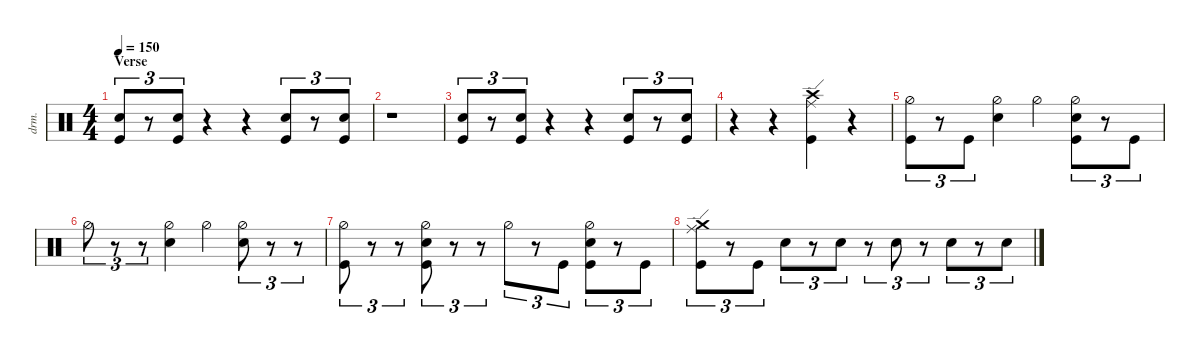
\defaultSystemsLayout 4
\hideDynamics
\bracketExtendMode nobrackets
\otherSystemsTrackNameOrientation horizontal
\track ("Drumkit" "drm.") {solo instrument percussion}
\staff {score}
\articulation defaults
\ts (4 4)
\section ("" "Verse")
\scale
1.06666
\tempo 150
\accidentals auto
\clef neutral
\ottava regular
\simile none
\ks aminor
("Kick (hit)" "Snare (hit) 2").8{tu (3 2) dy mf beam Up} r.8{tu (3 2) beam Up} ("Kick (hit)" "Snare (hit) 2").8{tu (3 2) beam Up} r.4{beam Down} r.4{beam Down} ("Kick (hit)" "Snare (hit) 2").8{tu (3 2) beam Up} r.8{tu (3 2) beam Up} ("Kick (hit)" "Snare (hit) 2").8{tu (3 2) beam Up} |
\scale
0.977779 r.1{beam Down} |
\scale
0.977779 ("Kick (hit)" "Snare (hit) 2").8{tu (3 2) beam Up} r.8{tu (3 2) beam Up} ("Kick (hit)" "Snare (hit) 2").8{tu (3 2) beam Up} r.4{beam Up} r.4{beam Up} ("Kick (hit)" "Snare (hit) 2").8{tu (3 2) beam Up} r.8{tu (3 2) beam Up} ("Kick (hit)" "Snare (hit) 2").8{tu (3 2) beam Up} |
\scale
0.977779 r.4{beam Down} r.4{beam Down} ("Kick (hit)" "Ride (edge)" "Crash high (hit)").4{beam Down} r.4{beam Down} |
\scale
1.06666 ("Kick (hit)" "Hi-Hat (half)").8{tu (3 2) beam Down} r.8{tu (3 2) beam Down} "Kick (hit)".8{tu (3 2) beam Down} ("Hi-Hat (half)" "Snare (hit) 2").4{beam Down} "Hi-Hat (half)".4{beam Down} ("Kick (hit)" "Hi-Hat (half)" "Snare (hit) 2").8{tu (3 2) beam Down} r.8{tu (3 2) beam Down} "Kick (hit)".8{tu (3 2) beam Down} |
\scale
0.977779 "Hi-Hat (half)".8{tu (3 2) beam Down} r.8{tu (3 2) beam Down} r.8{tu (3 2) beam Down} ("Hi-Hat (half)" "Snare (hit) 2").4{beam Down} "Hi-Hat (half)".4{beam Down} ("Hi-Hat (half)" "Snare (hit) 2").8{tu (3 2) beam Down} r.8{tu (3 2) beam Down} r.8{tu (3 2) beam Down} |
\scale
0.977779 ("Kick (hit)" "Hi-Hat (half)").8{tu (3 2) beam Down} r.8{tu (3 2) beam Down} r.8{tu (3 2) beam Down} ("Kick (hit)" "Hi-Hat (half)" "Snare (hit) 2").8{tu (3 2) beam Down} r.8{tu (3 2) beam Down} r.8{tu (3 2) beam Down} "Hi-Hat (half)".8{tu (3 2) beam Down} r.8{tu (3 2) beam Down} "Kick (hit)".8{tu (3 2) beam Down} ("Kick (hit)" "Hi-Hat (half)" "Snare (hit) 2").8{tu (3 2) beam Down} r.8{tu (3 2) beam Down} "Kick (hit)".8{tu (3 2) beam Down} |
\scale
0.977779 ("Kick (hit)" "Crash medium (hit)" "Ride (edge)").8{tu (3 2) beam Down} r.8{tu (3 2) beam Down} "Kick (hit)".8{tu (3 2) beam Down} "Snare (hit) 2".8{tu (3 2) beam Down} r.8{tu (3 2) beam Down} "Snare (hit) 2".8{tu (3 2) beam Down} r.8{tu (3 2) beam Down} "Snare (hit) 2".8{tu (3 2) beam Down} r.8{tu (3 2) beam Down} "Snare (hit) 2".8{tu (3 2) beam Down} r.8{tu (3 2) beam Down} "Snare (hit) 2".8{tu (3 2) beam Down} |
\scale
1.06666 |
\scale
0.977779 |
\scale
0.977779 |
\scale
0.977779 |
\scale
1.06224 |
\scale
0.973358 |
\scale
0.973358 |
\scale
0.991042
